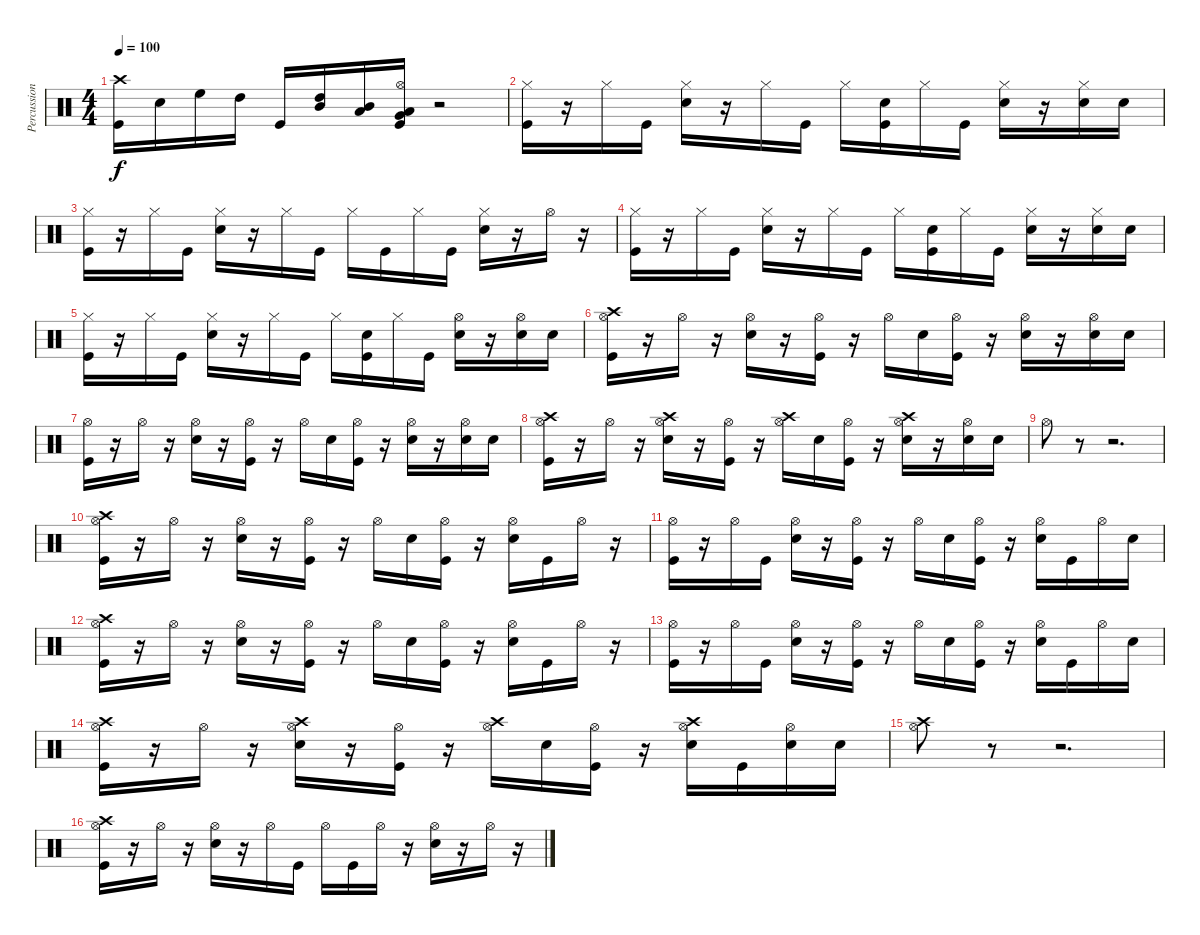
\track ("Percussion" "Percussion") {instrument percussion}
\staff {score}
\articulation defaults
\ts (4 4)
\tempo 100
\clef neutral
\ks c
("Crash high (hit)" "Kick (hit)").16{dy f} "Snare (hit) 2".16 "High Floor Tom (hit)".16 "High Tom (hit)".16 "Kick (hit)".16 ("Mid Tom (hit)" "High Tom (hit)").16 ("Mid Tom (hit)" "Low Tom (hit)").16 ("Hi-Hat (open)" "Low Tom (hit)" "Very Low Tom (hit)" "Kick (hit)").16 r.2 |
("Hi-Hat (closed)" "Kick (hit)").16 r.16 "Hi-Hat (closed)".16 "Kick (hit)".16 ("Hi-Hat (closed)" "Snare (hit) 2").16 r.16 "Hi-Hat (closed)".16 "Kick (hit)".16 "Hi-Hat (closed)".16 ("Snare (hit) 2" "Kick (hit)").16 "Hi-Hat (closed)".16 "Kick (hit)".16 ("Hi-Hat (closed)" "Snare (hit) 2").16 r.16 ("Hi-Hat (closed)" "Snare (hit) 2").16 "Snare (hit) 2".16 |
("Hi-Hat (closed)" "Kick (hit)").16 r.16 "Hi-Hat (closed)".16 "Kick (hit)".16 ("Hi-Hat (closed)" "Snare (hit) 2").16 r.16 "Hi-Hat (closed)".16 "Kick (hit)".16 "Hi-Hat (closed)".16 "Kick (hit)".16 "Hi-Hat (closed)".16 "Kick (hit)".16 ("Hi-Hat (closed)" "Snare (hit) 2").16 r.16 "Hi-Hat (open)".16 r.16 |
("Hi-Hat (closed)" "Kick (hit)").16 r.16 "Hi-Hat (closed)".16 "Kick (hit)".16 ("Hi-Hat (closed)" "Snare (hit) 2").16 r.16 "Hi-Hat (closed)".16 "Kick (hit)".16 "Hi-Hat (closed)".16 ("Snare (hit) 2" "Kick (hit)").16 "Hi-Hat (closed)".16 "Kick (hit)".16 ("Hi-Hat (closed)" "Snare (hit) 2").16 r.16 ("Hi-Hat (closed)" "Snare (hit) 2").16 "Snare (hit) 2".16 |
("Hi-Hat (closed)" "Kick (hit)").16 r.16 "Hi-Hat (closed)".16 "Kick (hit)".16 ("Hi-Hat (closed)" "Snare (hit) 2").16 r.16 "Hi-Hat (closed)".16 "Kick (hit)".16 "Hi-Hat (closed)".16 ("Snare (hit) 2" "Kick (hit)").16 "Hi-Hat (closed)".16 "Kick (hit)".16 ("Hi-Hat (open)" "Snare (hit) 2").16 r.16 ("Hi-Hat (open)" "Snare (hit) 2").16 "Snare (hit) 2".16 |
("Crash high (hit)" "Hi-Hat (open)" "Kick (hit)").16 r.16 "Hi-Hat (open)".16 r.16 ("Hi-Hat (open)" "Snare (hit) 2").16 r.16 ("Hi-Hat (open)" "Kick (hit)").16 r.16 "Hi-Hat (open)".16 "Snare (hit) 2".16 ("Hi-Hat (open)" "Kick (hit)").16 r.16 ("Hi-Hat (open)" "Snare (hit) 2").16 r.16 ("Hi-Hat (open)" "Snare (hit) 2").16 "Snare (hit) 2".16 |
("Hi-Hat (open)" "Kick (hit)").16 r.16 "Hi-Hat (open)".16 r.16 ("Hi-Hat (open)" "Snare (hit) 2").16 r.16 ("Hi-Hat (open)" "Kick (hit)").16 r.16 "Hi-Hat (open)".16 "Snare (hit) 2".16 ("Hi-Hat (open)" "Kick (hit)").16 r.16 ("Hi-Hat (open)" "Snare (hit) 2").16 r.16 ("Hi-Hat (open)" "Snare (hit) 2").16 "Snare (hit) 2".16 |
("Crash high (hit)" "Hi-Hat (open)" "Kick (hit)").16 r.16 "Hi-Hat (open)".16 r.16 ("Crash high (hit)" "Hi-Hat (open)" "Snare (hit) 2").16 r.16 ("Hi-Hat (open)" "Kick (hit)").16 r.16 ("Crash high (hit)" "Hi-Hat (open)").16 "Snare (hit) 2".16 ("Hi-Hat (open)" "Kick (hit)").16 r.16 ("Crash high (hit)" "Hi-Hat (open)" "Snare (hit) 2").16 r.16 ("Hi-Hat (open)" "Snare (hit) 2").16 "Snare (hit) 2".16 |
"Hi-Hat (open)".8 r.8 r.2{d} |
("Crash high (hit)" "Hi-Hat (open)" "Kick (hit)").16 r.16 "Hi-Hat (open)".16 r.16 ("Hi-Hat (open)" "Snare (hit) 2").16 r.16 ("Hi-Hat (open)" "Kick (hit)").16 r.16 "Hi-Hat (open)".16 "Snare (hit) 2".16 ("Hi-Hat (open)" "Kick (hit)").16 r.16 ("Hi-Hat (open)" "Snare (hit) 2").16 "Kick (hit)".16 "Hi-Hat (open)".16 r.16 |
("Hi-Hat (open)" "Kick (hit)").16 r.16 "Hi-Hat (open)".16 "Kick (hit)".16 ("Hi-Hat (open)" "Snare (hit) 2").16 r.16 ("Hi-Hat (open)" "Kick (hit)").16 r.16 "Hi-Hat (open)".16 "Snare (hit) 2".16 ("Hi-Hat (open)" "Kick (hit)").16 r.16 ("Hi-Hat (open)" "Snare (hit) 2").16 "Kick (hit)".16 "Hi-Hat (open)".16 "Snare (hit) 2".16 |
("Crash high (hit)" "Hi-Hat (open)" "Kick (hit)").16 r.16 "Hi-Hat (open)".16 r.16 ("Hi-Hat (open)" "Snare (hit) 2").16 r.16 ("Hi-Hat (open)" "Kick (hit)").16 r.16 "Hi-Hat (open)".16 "Snare (hit) 2".16 ("Hi-Hat (open)" "Kick (hit)").16 r.16 ("Hi-Hat (open)" "Snare (hit) 2").16 "Kick (hit)".16 "Hi-Hat (open)".16 r.16 |
("Hi-Hat (open)" "Kick (hit)").16 r.16 "Hi-Hat (open)".16 "Kick (hit)".16 ("Hi-Hat (open)" "Snare (hit) 2").16 r.16 ("Hi-Hat (open)" "Kick (hit)").16 r.16 "Hi-Hat (open)".16 "Snare (hit) 2".16 ("Hi-Hat (open)" "Kick (hit)").16 r.16 ("Hi-Hat (open)" "Snare (hit) 2").16 "Kick (hit)".16 "Hi-Hat (open)".16 "Snare (hit) 2".16 |
("Crash high (hit)" "Hi-Hat (open)" "Kick (hit)").16 r.16 "Hi-Hat (open)".16 r.16 ("Crash high (hit)" "Hi-Hat (open)" "Snare (hit) 2").16 r.16 ("Hi-Hat (open)" "Kick (hit)").16 r.16 ("Crash high (hit)" "Hi-Hat (open)").16 "Snare (hit) 2".16 ("Hi-Hat (open)" "Kick (hit)").16 r.16 ("Crash high (hit)" "Hi-Hat (open)" "Snare (hit) 2").16 "Kick (hit)".16 ("Hi-Hat (open)" "Snare (hit) 2").16 "Snare (hit) 2".16 |
("Crash high (hit)" "Hi-Hat (open)").8 r.8 r.2{d} |
("Crash high (hit)" "Hi-Hat (open)" "Kick (hit)").16 r.16 "Hi-Hat (open)".16 r.16 ("Hi-Hat (open)" "Snare (hit) 2").16 r.16 "Hi-Hat (open)".16 "Kick (hit)".16 "Hi-Hat (open)".16 "Kick (hit)".16 "Hi-Hat (open)".16 r.16 ("Hi-Hat (open)" "Snare (hit) 2").16 r.16 "Hi-Hat (open)".16 r.16
